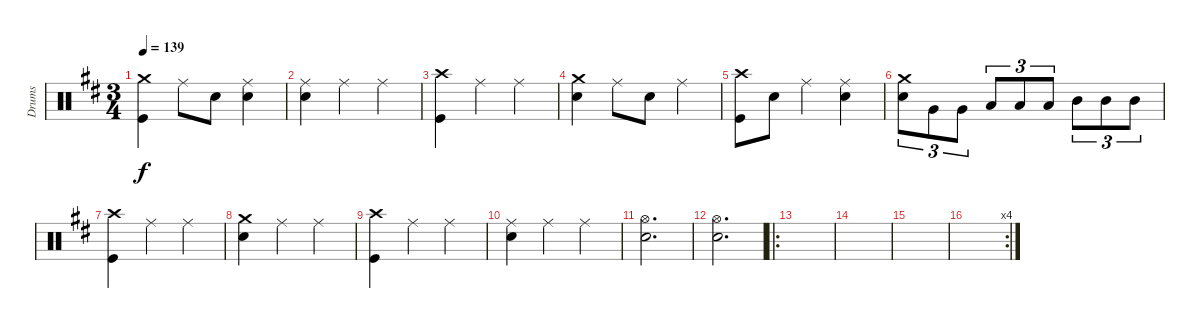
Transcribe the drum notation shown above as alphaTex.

\track ("Drums" "Drums") {instrument percussion}
\staff {score}
\articulation defaults
\ts (3 4)
\tempo 139
\clef neutral
\ks d
("Crash medium (hit)" "Kick (hit)").4{dy f} "Ride (middle)".8 "Snare (hit) 2".8 ("Ride (middle)" "Snare (hit) 2").4 |
("Ride (middle)" "Snare (hit) 2").4 "Ride (middle)".4 "Ride (middle)".4 |
("Crash high (hit)" "Kick (hit)").4 "Ride (middle)".4 "Ride (middle)".4 |
("Crash medium (hit)" "Snare (hit) 2").4 "Ride (middle)".8 "Snare (hit) 2".8 "Ride (middle)".4 |
("Crash high (hit)" "Kick (hit)").8 "Snare (hit) 2".8 "Ride (middle)".4 ("Ride (middle)" "Snare (hit) 2").4 |
("Crash medium (hit)" "Snare (hit) 2").8{tu (3 2)} "Very Low Tom (hit)".8{tu (3 2)} "Very Low Tom (hit)".8{tu (3 2)} "Low Tom (hit)".8{tu (3 2)} "Low Tom (hit)".8{tu (3 2)} "Low Tom (hit)".8{tu (3 2)} "Mid Tom (hit)".8{tu (3 2)} "Mid Tom (hit)".8{tu (3 2)} "Mid Tom (hit)".8{tu (3 2)} |
("Crash high (hit)" "Kick (hit)").4 "Ride (middle)".4 "Ride (middle)".4 |
("Crash medium (hit)" "Snare (hit) 2").4 "Ride (middle)".4 "Ride (middle)".4 |
("Crash high (hit)" "Kick (hit)").4 "Ride (middle)".4 "Ride (middle)".4 |
("Ride (middle)" "Snare (hit) 2").4 "Ride (middle)".4 "Ride (middle)".4 |
("Hi-Hat (open)" "Snare (hit) 2").2{d} |
("Hi-Hat (open)" "Snare (hit) 2").2{d} |
\ro
|
|
|
\rc 4
